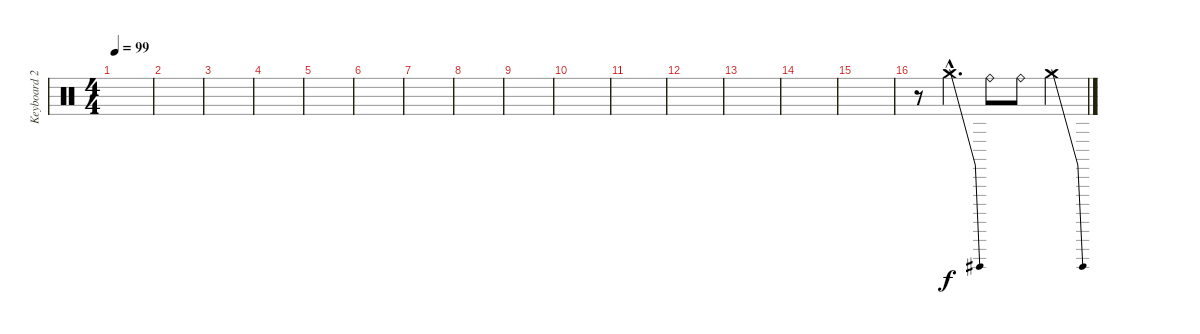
\track ("Keyboard 2" "Keyboard 2") {instrument percussion}
\staff {score}
\articulation defaults
\ts (4 4)
\tempo 99
\clef neutral
\ks c
|
|
|
|
|
|
|
|
|
|
|
|
|
|
|
r.8 "Crash medium (hit)"{be (bend 0 0 60 12) hac}.4{d} "Ride (bell)".8 "Ride (bell)".8 "Crash medium (hit)"{be (bend 0 0 60 12)}.4
